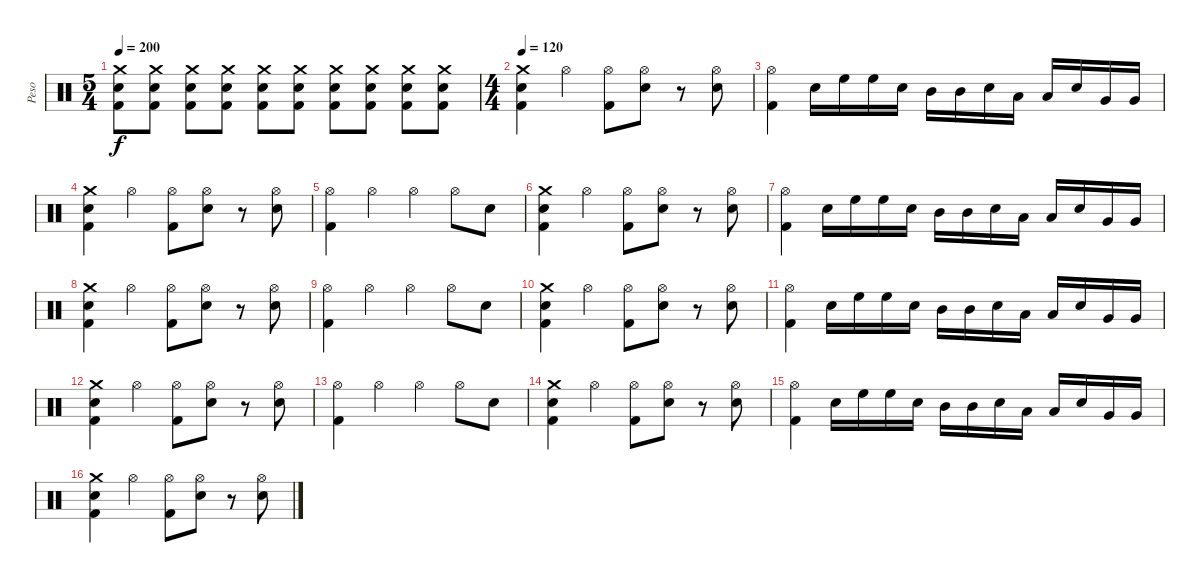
\track ("Peso" "Peso") {instrument percussion}
\staff {score}
\articulation defaults
\ts (5 4)
\tempo 200
\clef neutral
\ks c
("Crash medium (hit)" "Electric Snare (hit)" "Kick (hit) 2").8{dy f} ("Crash medium (hit)" "Electric Snare (hit)" "Kick (hit) 2").8 ("Crash medium (hit)" "Electric Snare (hit)" "Kick (hit) 2").8 ("Crash medium (hit)" "Electric Snare (hit)" "Kick (hit) 2").8 ("Crash medium (hit)" "Electric Snare (hit)" "Kick (hit) 2").8 ("Crash medium (hit)" "Electric Snare (hit)" "Kick (hit) 2").8 ("Crash medium (hit)" "Electric Snare (hit)" "Kick (hit) 2").8 ("Crash medium (hit)" "Electric Snare (hit)" "Kick (hit) 2").8 ("Crash medium (hit)" "Electric Snare (hit)" "Kick (hit) 2").8 ("Crash medium (hit)" "Electric Snare (hit)" "Kick (hit) 2").8 |
\ts (4 4)
\tempo 120
("Crash medium (hit)" "Electric Snare (hit)" "Kick (hit) 2").4 "Hi-Hat (open)".4 ("Hi-Hat (open)" "Kick (hit) 2").8 ("Hi-Hat (open)" "Electric Snare (hit)").8 r.8 ("Hi-Hat (open)" "Electric Snare (hit)").8 |
("Hi-Hat (open)" "Kick (hit) 2").4 "Electric Snare (hit)".16 "High Floor Tom (hit)".16 "High Floor Tom (hit)".16 "Electric Snare (hit)".16 "Mid Tom (hit)".16 "Mid Tom (hit)".16 "Electric Snare (hit)".16 "Low Tom (hit)".16 "Low Tom (hit)".16 "Electric Snare (hit)".16 "Very Low Tom (hit)".16 "Very Low Tom (hit)".16 |
("Crash medium (hit)" "Electric Snare (hit)" "Kick (hit) 2").4 "Hi-Hat (open)".4 ("Hi-Hat (open)" "Kick (hit) 2").8 ("Hi-Hat (open)" "Electric Snare (hit)").8 r.8 ("Hi-Hat (open)" "Electric Snare (hit)").8 |
("Hi-Hat (open)" "Kick (hit) 2").4 "Hi-Hat (open)".4 "Hi-Hat (open)".4 "Hi-Hat (open)".8 "Electric Snare (hit)".8 |
("Crash medium (hit)" "Electric Snare (hit)" "Kick (hit) 2").4 "Hi-Hat (open)".4 ("Hi-Hat (open)" "Kick (hit) 2").8 ("Hi-Hat (open)" "Electric Snare (hit)").8 r.8 ("Hi-Hat (open)" "Electric Snare (hit)").8 |
("Hi-Hat (open)" "Kick (hit) 2").4 "Electric Snare (hit)".16 "High Floor Tom (hit)".16 "High Floor Tom (hit)".16 "Electric Snare (hit)".16 "Mid Tom (hit)".16 "Mid Tom (hit)".16 "Electric Snare (hit)".16 "Low Tom (hit)".16 "Low Tom (hit)".16 "Electric Snare (hit)".16 "Very Low Tom (hit)".16 "Very Low Tom (hit)".16 |
("Crash medium (hit)" "Electric Snare (hit)" "Kick (hit) 2").4 "Hi-Hat (open)".4 ("Hi-Hat (open)" "Kick (hit) 2").8 ("Hi-Hat (open)" "Electric Snare (hit)").8 r.8 ("Hi-Hat (open)" "Electric Snare (hit)").8 |
("Hi-Hat (open)" "Kick (hit) 2").4 "Hi-Hat (open)".4 "Hi-Hat (open)".4 "Hi-Hat (open)".8 "Electric Snare (hit)".8 |
("Crash medium (hit)" "Electric Snare (hit)" "Kick (hit) 2").4 "Hi-Hat (open)".4 ("Hi-Hat (open)" "Kick (hit) 2").8 ("Hi-Hat (open)" "Electric Snare (hit)").8 r.8 ("Hi-Hat (open)" "Electric Snare (hit)").8 |
("Hi-Hat (open)" "Kick (hit) 2").4 "Electric Snare (hit)".16 "High Floor Tom (hit)".16 "High Floor Tom (hit)".16 "Electric Snare (hit)".16 "Mid Tom (hit)".16 "Mid Tom (hit)".16 "Electric Snare (hit)".16 "Low Tom (hit)".16 "Low Tom (hit)".16 "Electric Snare (hit)".16 "Very Low Tom (hit)".16 "Very Low Tom (hit)".16 |
("Crash medium (hit)" "Electric Snare (hit)" "Kick (hit) 2").4 "Hi-Hat (open)".4 ("Hi-Hat (open)" "Kick (hit) 2").8 ("Hi-Hat (open)" "Electric Snare (hit)").8 r.8 ("Hi-Hat (open)" "Electric Snare (hit)").8 |
("Hi-Hat (open)" "Kick (hit) 2").4 "Hi-Hat (open)".4 "Hi-Hat (open)".4 "Hi-Hat (open)".8 "Electric Snare (hit)".8 |
("Crash medium (hit)" "Electric Snare (hit)" "Kick (hit) 2").4 "Hi-Hat (open)".4 ("Hi-Hat (open)" "Kick (hit) 2").8 ("Hi-Hat (open)" "Electric Snare (hit)").8 r.8 ("Hi-Hat (open)" "Electric Snare (hit)").8 |
("Hi-Hat (open)" "Kick (hit) 2").4 "Electric Snare (hit)".16 "High Floor Tom (hit)".16 "High Floor Tom (hit)".16 "Electric Snare (hit)".16 "Mid Tom (hit)".16 "Mid Tom (hit)".16 "Electric Snare (hit)".16 "Low Tom (hit)".16 "Low Tom (hit)".16 "Electric Snare (hit)".16 "Very Low Tom (hit)".16 "Very Low Tom (hit)".16 |
("Crash medium (hit)" "Electric Snare (hit)" "Kick (hit) 2").4 "Hi-Hat (open)".4 ("Hi-Hat (open)" "Kick (hit) 2").8 ("Hi-Hat (open)" "Electric Snare (hit)").8 r.8 ("Hi-Hat (open)" "Electric Snare (hit)").8
